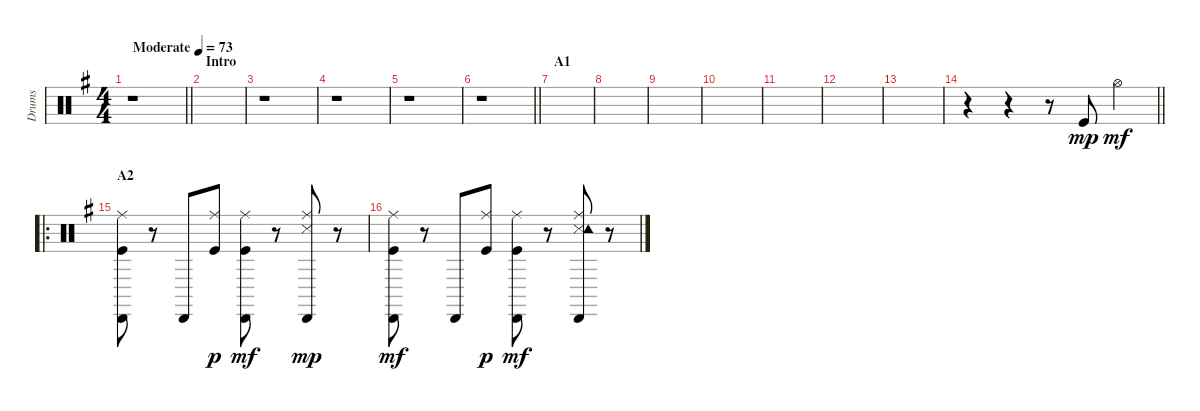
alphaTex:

\track ("Drums" "Drums") {instrument percussion}
\staff {score}
\articulation defaults
\ts (4 4)
\tempo (73 "Moderate")
\clef neutral
\barLineRight lightlight
\ks g
r.1{dy mp} |
\section ("" "Intro")
|
r.1 |
r.1 |
r.1 |
\barLineRight lightlight
r.1 |
\section ("" "A1")
|
|
|
|
|
|
|
\barLineRight lightlight
r.4 r.4 r.8 "Kick (hit)".8 "Hi-Hat (open)".4{dy mf} |
\ro
\section ("" "A2")
("Cabasa (hit)" "Ride (middle)" "Kick (hit)").8 r.8 "Cabasa (hit)".8 ("Ride (middle)" "Kick (hit)").8{dy p} ("Cabasa (hit)" "Ride (middle)" "Kick (hit)").8{dy mf} r.8 ("Cabasa (hit)" "Ride (middle)" "Snare (side stick) 3").8{dy mp} r.8 |
("Cabasa (hit)" "Ride (middle)" "Kick (hit)").8{dy mf} r.8 "Cabasa (hit)".8 ("Ride (middle)" "Kick (hit)").8{dy p} ("Cabasa (hit)" "Ride (middle)" "Kick (hit)").8{dy mf} r.8 ("Cabasa (hit)" "Ride (middle)" "Snare (side stick) 3" "Tambourine (hit)").8 r.8
